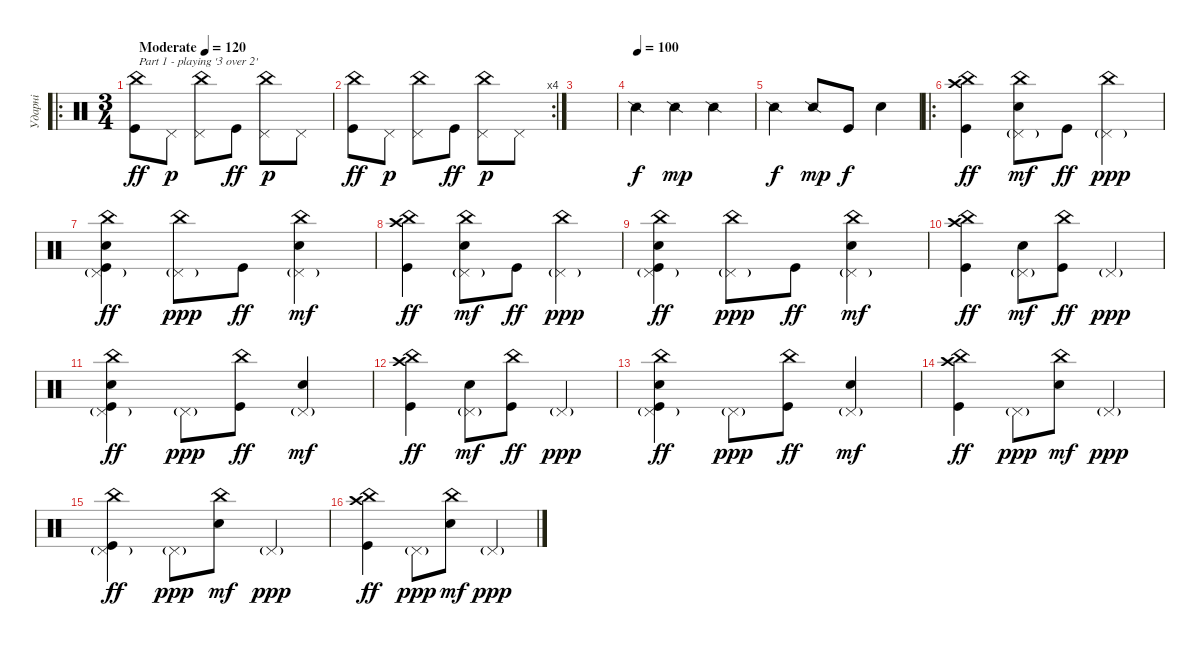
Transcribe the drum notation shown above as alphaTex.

\track ("Ударні" "Ударні") {instrument percussion}
\staff {score}
\articulation defaults
\ro
\ts (3 4)
\tempo (120 "Moderate")
\tempo 100
\tempo (120 "Moderate")
\clef neutral
\ks c
("China (hit)" "Kick (hit)").8{txt "Part 1 - playing '3 over 2'" dy ff} "Pedal Hi-Hat (hit)".8{dy p} ("China (hit)" "Pedal Hi-Hat (hit)").8 "Kick (hit)".8{dy ff} ("China (hit)" "Pedal Hi-Hat (hit)").8{dy p} "Pedal Hi-Hat (hit)".8 |
\rc 4
("China (hit)" "Kick (hit)").8{dy ff} "Pedal Hi-Hat (hit)".8{dy p} ("China (hit)" "Pedal Hi-Hat (hit)").8 "Kick (hit)".8{dy ff} ("China (hit)" "Pedal Hi-Hat (hit)").8{dy p} "Pedal Hi-Hat (hit)".8 |
|
\tempo (100)
"Snare (side stick) 2".4{dy f} "Snare (side stick) 2".4{dy mp} "Snare (side stick) 2".4 |
"Snare (side stick) 2".4{dy f} "Snare (side stick) 2".8{dy mp} "Kick (hit)".8{dy f} "Snare (hit) 2".4 |
\ro
("China (hit)" "Crash high (hit)" "Kick (hit)").4{dy ff} ("China (hit)" "Pedal Hi-Hat (hit)"{g} "Snare (hit) 2").8{dy mf} "Kick (hit)".8{dy ff} ("China (hit)" "Pedal Hi-Hat (hit)"{g}).4{dy ppp} |
("China (hit)" "Pedal Hi-Hat (hit)"{g} "Snare (hit) 2" "Kick (hit)").4{dy ff} ("China (hit)" "Pedal Hi-Hat (hit)"{g}).8{dy ppp} "Kick (hit)".8{dy ff} ("China (hit)" "Pedal Hi-Hat (hit)"{g} "Snare (hit) 2").4{dy mf} |
("China (hit)" "Crash high (hit)" "Kick (hit)").4{dy ff} ("China (hit)" "Pedal Hi-Hat (hit)"{g} "Snare (hit) 2").8{dy mf} "Kick (hit)".8{dy ff} ("China (hit)" "Pedal Hi-Hat (hit)"{g}).4{dy ppp} |
("China (hit)" "Pedal Hi-Hat (hit)"{g} "Snare (hit) 2" "Kick (hit)").4{dy ff} ("China (hit)" "Pedal Hi-Hat (hit)"{g}).8{dy ppp} "Kick (hit)".8{dy ff} ("China (hit)" "Pedal Hi-Hat (hit)"{g} "Snare (hit) 2").4{dy mf} |
("China (hit)" "Crash high (hit)" "Kick (hit)").4{dy ff} ("Pedal Hi-Hat (hit)"{g} "Snare (hit) 2").8{dy mf} ("China (hit)" "Kick (hit)").8{dy ff} "Pedal Hi-Hat (hit)"{g}.4{dy ppp} |
("China (hit)" "Pedal Hi-Hat (hit)"{g} "Snare (hit) 2" "Kick (hit)").4{dy ff} "Pedal Hi-Hat (hit)"{g}.8{dy ppp} ("China (hit)" "Kick (hit)").8{dy ff} ("Pedal Hi-Hat (hit)"{g} "Snare (hit) 2").4{dy mf} |
("China (hit)" "Crash high (hit)" "Kick (hit)").4{dy ff} ("Pedal Hi-Hat (hit)"{g} "Snare (hit) 2").8{dy mf} ("China (hit)" "Kick (hit)").8{dy ff} "Pedal Hi-Hat (hit)"{g}.4{dy ppp} |
("China (hit)" "Pedal Hi-Hat (hit)"{g} "Snare (hit) 2" "Kick (hit)").4{dy ff} "Pedal Hi-Hat (hit)"{g}.8{dy ppp} ("China (hit)" "Kick (hit)").8{dy ff} ("Pedal Hi-Hat (hit)"{g} "Snare (hit) 2").4{dy mf} |
("China (hit)" "Crash high (hit)" "Kick (hit)").4{dy ff} "Pedal Hi-Hat (hit)"{g}.8{dy ppp} ("China (hit)" "Snare (hit) 2").8{dy mf} "Pedal Hi-Hat (hit)"{g}.4{dy ppp} |
("China (hit)" "Pedal Hi-Hat (hit)"{g} "Kick (hit)").4{dy ff} "Pedal Hi-Hat (hit)"{g}.8{dy ppp} ("China (hit)" "Snare (hit) 2").8{dy mf} "Pedal Hi-Hat (hit)"{g}.4{dy ppp} |
("China (hit)" "Crash high (hit)" "Kick (hit)").4{dy ff} "Pedal Hi-Hat (hit)"{g}.8{dy ppp} ("China (hit)" "Snare (hit) 2").8{dy mf} "Pedal Hi-Hat (hit)"{g}.4{dy ppp}
